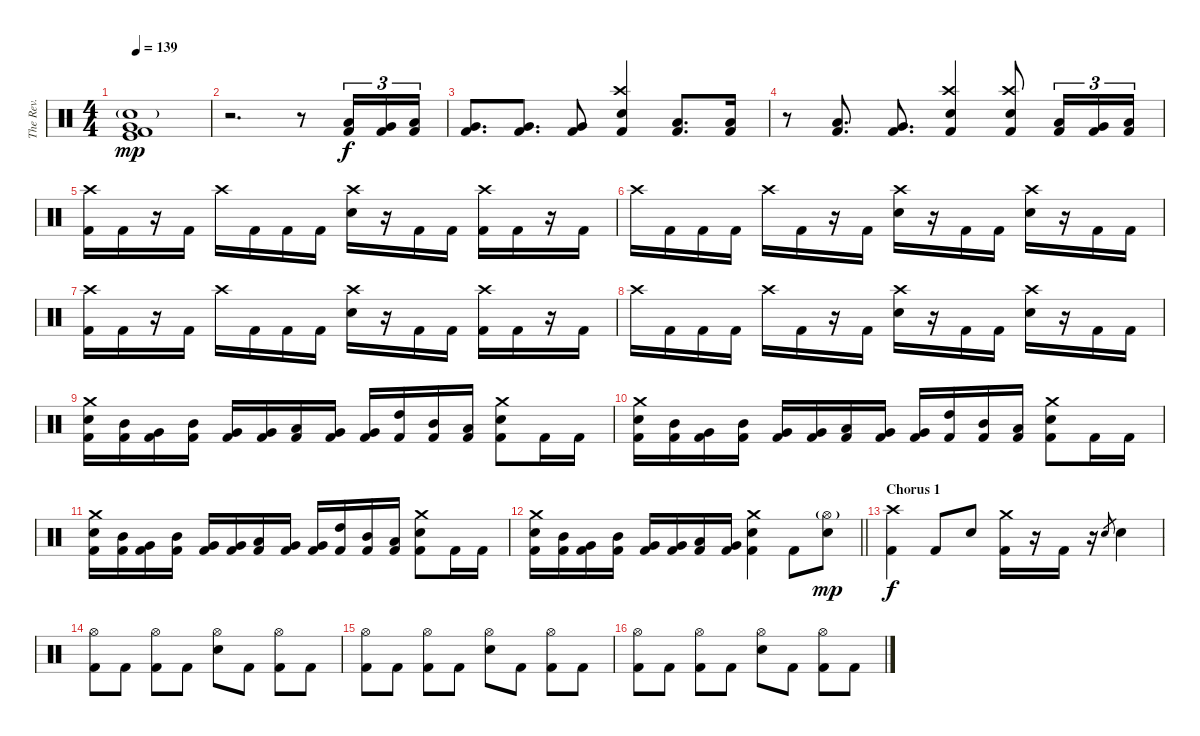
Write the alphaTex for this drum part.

\track ("The Rev." "The Rev.") {instrument percussion}
\staff {score}
\articulation defaults
\ts (4 4)
\section ("" " ")
\tempo 139
\clef neutral
\ks c
("Snare (hit) 2"{g} "Very Low Tom (hit)" "Kick (hit)" "Kick (hit) 2").1{dy mp} |
r.2{d} r.8 ("Low Tom (hit)" "Kick (hit) 2").16{tu (3 2) dy f} ("Very Low Tom (hit)" "Kick (hit) 2").16{tu (3 2)} ("Low Floor Tom (hit)" "Kick (hit) 2").16{tu (3 2)} |
("Very Low Tom (hit)" "Kick (hit) 2").8{d} ("Very Low Tom (hit)" "Kick (hit) 2").8{d} ("Very Low Tom (hit)" "Kick (hit) 2").8 ("Crash high (hit)" "Electric Snare (hit)" "Kick (hit) 2").4 ("Low Tom (hit)" "Kick (hit) 2").8{d} ("Low Tom (hit)" "Kick (hit) 2").16 |
r.8 ("Low Tom (hit)" "Kick (hit) 2").8{d} ("Very Low Tom (hit)" "Kick (hit) 2").8{d} ("Crash high (hit)" "Electric Snare (hit)" "Kick (hit) 2").4 ("Crash high (hit)" "Electric Snare (hit)" "Kick (hit) 2").8 ("Low Tom (hit)" "Kick (hit) 2").16{tu (3 2)} ("Very Low Tom (hit)" "Kick (hit) 2").16{tu (3 2)} ("Low Floor Tom (hit)" "Kick (hit) 2").16{tu (3 2)} |
("Crash high (hit)" "Kick (hit) 2").16 "Kick (hit) 2".16 r.16 "Kick (hit) 2".16 "Crash high (hit)".16 "Kick (hit) 2".16 "Kick (hit) 2".16 "Kick (hit) 2".16 ("Crash high (hit)" "Electric Snare (hit)").16 r.16 "Kick (hit) 2".16 "Kick (hit) 2".16 ("Crash high (hit)" "Kick (hit) 2").16 "Kick (hit) 2".16 r.16 "Kick (hit) 2".16 |
"Crash high (hit)".16 "Kick (hit) 2".16 "Kick (hit) 2".16 "Kick (hit) 2".16 "Crash high (hit)".16 "Kick (hit) 2".16 r.16 "Kick (hit) 2".16 ("Crash high (hit)" "Electric Snare (hit)").16 r.16 "Kick (hit) 2".16 "Kick (hit) 2".16 ("Crash high (hit)" "Electric Snare (hit)").16 r.16 "Kick (hit) 2".16 "Kick (hit) 2".16 |
("Crash high (hit)" "Kick (hit) 2").16 "Kick (hit) 2".16 r.16 "Kick (hit) 2".16 "Crash high (hit)".16 "Kick (hit) 2".16 "Kick (hit) 2".16 "Kick (hit) 2".16 ("Crash high (hit)" "Electric Snare (hit)").16 r.16 "Kick (hit) 2".16 "Kick (hit) 2".16 ("Crash high (hit)" "Kick (hit) 2").16 "Kick (hit) 2".16 r.16 "Kick (hit) 2".16 |
"Crash high (hit)".16 "Kick (hit) 2".16 "Kick (hit) 2".16 "Kick (hit) 2".16 "Crash high (hit)".16 "Kick (hit) 2".16 r.16 "Kick (hit) 2".16 ("Crash high (hit)" "Electric Snare (hit)").16 r.16 "Kick (hit) 2".16 "Kick (hit) 2".16 ("Crash high (hit)" "Electric Snare (hit)").16 r.16 "Kick (hit) 2".16 "Kick (hit) 2".16 |
("Crash medium (hit)" "Electric Snare (hit)" "Kick (hit) 2").16 ("Mid Tom (hit)" "Kick (hit) 2").16 ("Very Low Tom (hit)" "Kick (hit) 2").16 ("Mid Tom (hit)" "Kick (hit) 2").16 ("Very Low Tom (hit)" "Kick (hit) 2").16 ("Very Low Tom (hit)" "Kick (hit) 2").16 ("Low Tom (hit)" "Kick (hit) 2").16 ("Very Low Tom (hit)" "Kick (hit) 2").16 ("Very Low Tom (hit)" "Kick (hit) 2").16 ("High Tom (hit)" "Kick (hit) 2").16 ("Mid Tom (hit)" "Kick (hit) 2").16 ("Low Tom (hit)" "Kick (hit) 2").16 ("Crash medium (hit)" "Electric Snare (hit)" "Kick (hit) 2").8 "Kick (hit) 2".16 "Kick (hit) 2".16 |
("Crash medium (hit)" "Electric Snare (hit)" "Kick (hit) 2").16 ("Mid Tom (hit)" "Kick (hit) 2").16 ("Very Low Tom (hit)" "Kick (hit) 2").16 ("Mid Tom (hit)" "Kick (hit) 2").16 ("Very Low Tom (hit)" "Kick (hit) 2").16 ("Very Low Tom (hit)" "Kick (hit) 2").16 ("Low Tom (hit)" "Kick (hit) 2").16 ("Very Low Tom (hit)" "Kick (hit) 2").16 ("Very Low Tom (hit)" "Kick (hit) 2").16 ("High Tom (hit)" "Kick (hit) 2").16 ("Mid Tom (hit)" "Kick (hit) 2").16 ("Low Tom (hit)" "Kick (hit) 2").16 ("Crash medium (hit)" "Electric Snare (hit)" "Kick (hit) 2").8 "Kick (hit) 2".16 "Kick (hit) 2".16 |
("Crash medium (hit)" "Electric Snare (hit)" "Kick (hit) 2").16 ("Mid Tom (hit)" "Kick (hit) 2").16 ("Very Low Tom (hit)" "Kick (hit) 2").16 ("Mid Tom (hit)" "Kick (hit) 2").16 ("Very Low Tom (hit)" "Kick (hit) 2").16 ("Very Low Tom (hit)" "Kick (hit) 2").16 ("Low Tom (hit)" "Kick (hit) 2").16 ("Very Low Tom (hit)" "Kick (hit) 2").16 ("Very Low Tom (hit)" "Kick (hit) 2").16 ("High Tom (hit)" "Kick (hit) 2").16 ("Mid Tom (hit)" "Kick (hit) 2").16 ("Low Tom (hit)" "Kick (hit) 2").16 ("Crash medium (hit)" "Electric Snare (hit)" "Kick (hit) 2").8 "Kick (hit) 2".16 "Kick (hit) 2".16 |
\barLineRight lightlight
("Crash medium (hit)" "Electric Snare (hit)" "Kick (hit) 2").16 ("Mid Tom (hit)" "Kick (hit) 2").16 ("Very Low Tom (hit)" "Kick (hit) 2").16 ("Mid Tom (hit)" "Kick (hit) 2").16 ("Very Low Tom (hit)" "Kick (hit) 2").16 ("Very Low Tom (hit)" "Kick (hit) 2").16 ("Low Tom (hit)" "Kick (hit) 2").16 ("Very Low Tom (hit)" "Kick (hit) 2").16 ("Crash medium (hit)" "Electric Snare (hit)" "Kick (hit) 2").4 "Kick (hit) 2".8 ("Hi-Hat (open)"{g} "Electric Snare (hit)").8{dy mp} |
\section ("" "Chorus 1")
("Crash high (hit)" "Kick (hit) 2").4{dy f} "Kick (hit) 2".8 "Electric Snare (hit)".8 ("Crash medium (hit)" "Kick (hit) 2").16 r.16 "Kick (hit) 2".16 r.16 "Electric Snare (hit)".8{gr} "Electric Snare (hit)".4 |
("Hi-Hat (open)" "Kick (hit) 2").8 "Kick (hit) 2".8 ("Hi-Hat (open)" "Kick (hit) 2").8 "Kick (hit) 2".8 ("Hi-Hat (open)" "Electric Snare (hit)").8 "Kick (hit) 2".8 ("Hi-Hat (open)" "Kick (hit) 2").8 "Kick (hit) 2".8 |
("Hi-Hat (open)" "Kick (hit) 2").8 "Kick (hit) 2".8 ("Hi-Hat (open)" "Kick (hit) 2").8 "Kick (hit) 2".8 ("Hi-Hat (open)" "Electric Snare (hit)").8 "Kick (hit) 2".8 ("Hi-Hat (open)" "Kick (hit) 2").8 "Kick (hit) 2".8 |
("Hi-Hat (open)" "Kick (hit) 2").8 "Kick (hit) 2".8 ("Hi-Hat (open)" "Kick (hit) 2").8 "Kick (hit) 2".8 ("Hi-Hat (open)" "Electric Snare (hit)").8 "Kick (hit) 2".8 ("Hi-Hat (open)" "Kick (hit) 2").8 "Kick (hit) 2".8
